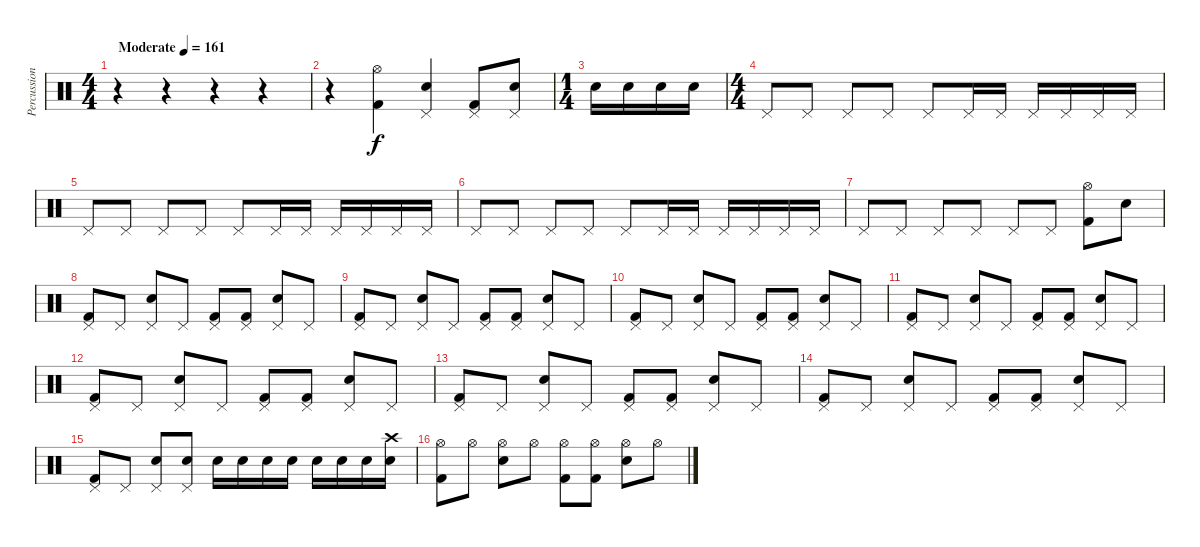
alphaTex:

\track ("Percussion" "Percussion") {instrument percussion}
\staff {score}
\articulation defaults
\ts (4 4)
\tempo (161 "Moderate")
\clef neutral
\ks c
r.4{dy f} r.4 r.4 r.4 |
r.4 ("Hi-Hat (open)" "Kick (hit) 2").4 ("Pedal Hi-Hat (hit)" "Snare (hit) 2").4 ("Pedal Hi-Hat (hit)" "Kick (hit) 2").8 ("Pedal Hi-Hat (hit)" "Snare (hit) 2").8 |
\ts (1 4)
"Snare (hit) 2".16 "Snare (hit) 2".16 "Snare (hit) 2".16 "Snare (hit) 2".16 |
\ts (4 4)
"Pedal Hi-Hat (hit)".8 "Pedal Hi-Hat (hit)".8 "Pedal Hi-Hat (hit)".8 "Pedal Hi-Hat (hit)".8 "Pedal Hi-Hat (hit)".8 "Pedal Hi-Hat (hit)".16 "Pedal Hi-Hat (hit)".16 "Pedal Hi-Hat (hit)".16 "Pedal Hi-Hat (hit)".16 "Pedal Hi-Hat (hit)".16 "Pedal Hi-Hat (hit)".16 |
"Pedal Hi-Hat (hit)".8 "Pedal Hi-Hat (hit)".8 "Pedal Hi-Hat (hit)".8 "Pedal Hi-Hat (hit)".8 "Pedal Hi-Hat (hit)".8 "Pedal Hi-Hat (hit)".16 "Pedal Hi-Hat (hit)".16 "Pedal Hi-Hat (hit)".16 "Pedal Hi-Hat (hit)".16 "Pedal Hi-Hat (hit)".16 "Pedal Hi-Hat (hit)".16 |
"Pedal Hi-Hat (hit)".8 "Pedal Hi-Hat (hit)".8 "Pedal Hi-Hat (hit)".8 "Pedal Hi-Hat (hit)".8 "Pedal Hi-Hat (hit)".8 "Pedal Hi-Hat (hit)".16 "Pedal Hi-Hat (hit)".16 "Pedal Hi-Hat (hit)".16 "Pedal Hi-Hat (hit)".16 "Pedal Hi-Hat (hit)".16 "Pedal Hi-Hat (hit)".16 |
"Pedal Hi-Hat (hit)".8 "Pedal Hi-Hat (hit)".8 "Pedal Hi-Hat (hit)".8 "Pedal Hi-Hat (hit)".8 "Pedal Hi-Hat (hit)".8 "Pedal Hi-Hat (hit)".8 ("Hi-Hat (open)" "Kick (hit) 2").8 "Snare (hit) 2".8 |
("Pedal Hi-Hat (hit)" "Kick (hit) 2").8 "Pedal Hi-Hat (hit)".8 ("Pedal Hi-Hat (hit)" "Snare (hit) 2").8 "Pedal Hi-Hat (hit)".8 ("Pedal Hi-Hat (hit)" "Kick (hit) 2").8 ("Pedal Hi-Hat (hit)" "Kick (hit) 2").8 ("Pedal Hi-Hat (hit)" "Snare (hit) 2").8 "Pedal Hi-Hat (hit)".8 |
("Pedal Hi-Hat (hit)" "Kick (hit) 2").8 "Pedal Hi-Hat (hit)".8 ("Pedal Hi-Hat (hit)" "Snare (hit) 2").8 "Pedal Hi-Hat (hit)".8 ("Pedal Hi-Hat (hit)" "Kick (hit) 2").8 ("Pedal Hi-Hat (hit)" "Kick (hit) 2").8 ("Pedal Hi-Hat (hit)" "Snare (hit) 2").8 "Pedal Hi-Hat (hit)".8 |
("Pedal Hi-Hat (hit)" "Kick (hit) 2").8 "Pedal Hi-Hat (hit)".8 ("Pedal Hi-Hat (hit)" "Snare (hit) 2").8 "Pedal Hi-Hat (hit)".8 ("Pedal Hi-Hat (hit)" "Kick (hit) 2").8 ("Pedal Hi-Hat (hit)" "Kick (hit) 2").8 ("Pedal Hi-Hat (hit)" "Snare (hit) 2").8 "Pedal Hi-Hat (hit)".8 |
("Pedal Hi-Hat (hit)" "Kick (hit) 2").8 "Pedal Hi-Hat (hit)".8 ("Pedal Hi-Hat (hit)" "Snare (hit) 2").8 "Pedal Hi-Hat (hit)".8 ("Pedal Hi-Hat (hit)" "Kick (hit) 2").8 ("Pedal Hi-Hat (hit)" "Kick (hit) 2").8 ("Pedal Hi-Hat (hit)" "Snare (hit) 2").8 "Pedal Hi-Hat (hit)".8 |
("Pedal Hi-Hat (hit)" "Kick (hit) 2").8 "Pedal Hi-Hat (hit)".8 ("Pedal Hi-Hat (hit)" "Snare (hit) 2").8 "Pedal Hi-Hat (hit)".8 ("Pedal Hi-Hat (hit)" "Kick (hit) 2").8 ("Pedal Hi-Hat (hit)" "Kick (hit) 2").8 ("Pedal Hi-Hat (hit)" "Snare (hit) 2").8 "Pedal Hi-Hat (hit)".8 |
("Pedal Hi-Hat (hit)" "Kick (hit) 2").8 "Pedal Hi-Hat (hit)".8 ("Pedal Hi-Hat (hit)" "Snare (hit) 2").8 "Pedal Hi-Hat (hit)".8 ("Pedal Hi-Hat (hit)" "Kick (hit) 2").8 ("Pedal Hi-Hat (hit)" "Kick (hit) 2").8 ("Pedal Hi-Hat (hit)" "Snare (hit) 2").8 "Pedal Hi-Hat (hit)".8 |
("Pedal Hi-Hat (hit)" "Kick (hit) 2").8 "Pedal Hi-Hat (hit)".8 ("Pedal Hi-Hat (hit)" "Snare (hit) 2").8 "Pedal Hi-Hat (hit)".8 ("Pedal Hi-Hat (hit)" "Kick (hit) 2").8 ("Pedal Hi-Hat (hit)" "Kick (hit) 2").8 ("Pedal Hi-Hat (hit)" "Snare (hit) 2").8 "Pedal Hi-Hat (hit)".8 |
("Pedal Hi-Hat (hit)" "Kick (hit) 2").8 "Pedal Hi-Hat (hit)".8 ("Pedal Hi-Hat (hit)" "Snare (hit) 2").8 ("Pedal Hi-Hat (hit)" "Snare (hit) 2").8 "Snare (hit) 2".16 "Snare (hit) 2".16 "Snare (hit) 2".16 "Snare (hit) 2".16 "Snare (hit) 2".16 "Snare (hit) 2".16 "Snare (hit) 2".16 ("Crash high (hit)" "Snare (hit) 2").16 |
("Hi-Hat (open)" "Kick (hit) 2").8 "Hi-Hat (open)".8 ("Hi-Hat (open)" "Snare (hit) 2").8 "Hi-Hat (open)".8 ("Hi-Hat (open)" "Kick (hit) 2").8 ("Hi-Hat (open)" "Kick (hit) 2").8 ("Hi-Hat (open)" "Snare (hit) 2").8 "Hi-Hat (open)".8
